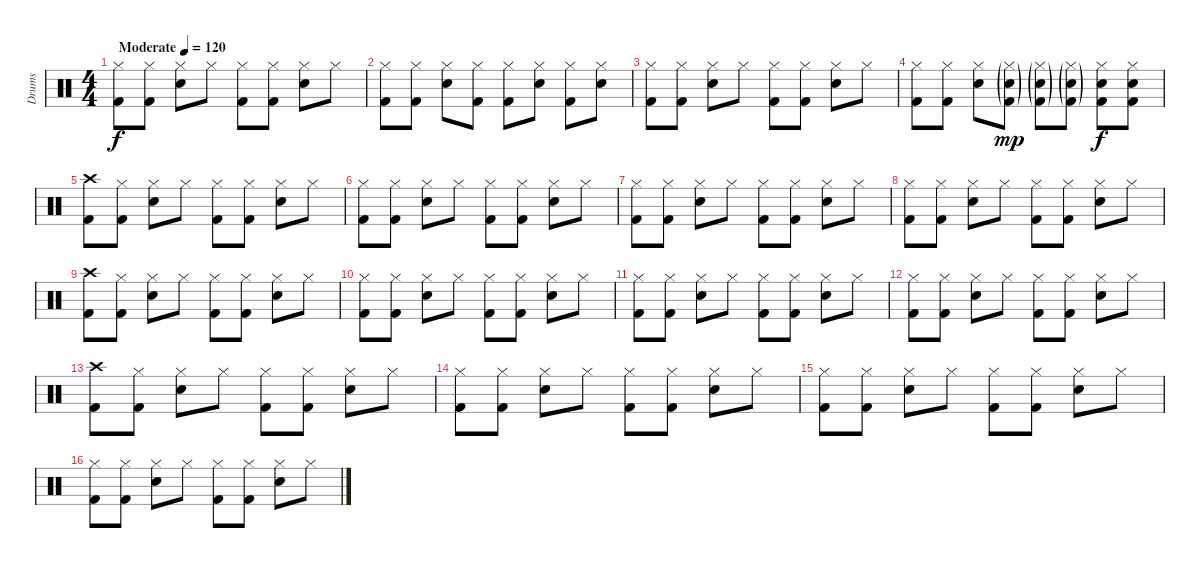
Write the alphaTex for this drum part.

\track ("Drums" "Drums") {instrument percussion}
\staff {score}
\articulation defaults
\ts (4 4)
\tempo (120 "Moderate")
\clef neutral
\ks c
("Hi-Hat (closed)" "Kick (hit) 2").8{dy f} ("Hi-Hat (closed)" "Kick (hit) 2").8 ("Hi-Hat (closed)" "Electric Snare (hit)").8 "Hi-Hat (closed)".8 ("Hi-Hat (closed)" "Kick (hit) 2").8 ("Hi-Hat (closed)" "Kick (hit) 2").8 ("Hi-Hat (closed)" "Electric Snare (hit)").8 "Hi-Hat (closed)".8 |
("Hi-Hat (closed)" "Kick (hit) 2").8 ("Hi-Hat (closed)" "Kick (hit) 2").8 ("Hi-Hat (closed)" "Electric Snare (hit)").8 ("Hi-Hat (closed)" "Kick (hit) 2").8 ("Hi-Hat (closed)" "Kick (hit) 2").8 ("Hi-Hat (closed)" "Electric Snare (hit)").8 ("Hi-Hat (closed)" "Kick (hit) 2").8 ("Hi-Hat (closed)" "Electric Snare (hit)").8 |
("Hi-Hat (closed)" "Kick (hit) 2").8 ("Hi-Hat (closed)" "Kick (hit) 2").8 ("Hi-Hat (closed)" "Electric Snare (hit)").8 "Hi-Hat (closed)".8 ("Hi-Hat (closed)" "Kick (hit) 2").8 ("Hi-Hat (closed)" "Kick (hit) 2").8 ("Hi-Hat (closed)" "Electric Snare (hit)").8 "Hi-Hat (closed)".8 |
("Hi-Hat (closed)" "Kick (hit) 2").8 ("Hi-Hat (closed)" "Kick (hit) 2").8 ("Hi-Hat (closed)" "Electric Snare (hit)").8 ("Hi-Hat (closed)"{g} "Electric Snare (hit)"{g} "Kick (hit) 2"{g}).8{dy mp} ("Hi-Hat (closed)"{g} "Electric Snare (hit)"{g} "Kick (hit) 2"{g}).8 ("Hi-Hat (closed)"{g} "Electric Snare (hit)"{g} "Kick (hit) 2"{g}).8 ("Hi-Hat (closed)" "Electric Snare (hit)" "Kick (hit) 2").8{dy f} ("Hi-Hat (closed)" "Electric Snare (hit)" "Kick (hit) 2").8 |
("Crash high (hit)" "Kick (hit) 2").8 ("Hi-Hat (closed)" "Kick (hit) 2").8 ("Hi-Hat (closed)" "Electric Snare (hit)").8 "Hi-Hat (closed)".8 ("Hi-Hat (closed)" "Kick (hit) 2").8 ("Hi-Hat (closed)" "Kick (hit) 2").8 ("Hi-Hat (closed)" "Electric Snare (hit)").8 "Hi-Hat (closed)".8 |
("Hi-Hat (closed)" "Kick (hit) 2").8 ("Hi-Hat (closed)" "Kick (hit) 2").8 ("Hi-Hat (closed)" "Electric Snare (hit)").8 "Hi-Hat (closed)".8 ("Hi-Hat (closed)" "Kick (hit) 2").8 ("Hi-Hat (closed)" "Kick (hit) 2").8 ("Hi-Hat (closed)" "Electric Snare (hit)").8 "Hi-Hat (closed)".8 |
("Hi-Hat (closed)" "Kick (hit) 2").8 ("Hi-Hat (closed)" "Kick (hit) 2").8 ("Hi-Hat (closed)" "Electric Snare (hit)").8 "Hi-Hat (closed)".8 ("Hi-Hat (closed)" "Kick (hit) 2").8 ("Hi-Hat (closed)" "Kick (hit) 2").8 ("Hi-Hat (closed)" "Electric Snare (hit)").8 "Hi-Hat (closed)".8 |
("Hi-Hat (closed)" "Kick (hit) 2").8 ("Hi-Hat (closed)" "Kick (hit) 2").8 ("Hi-Hat (closed)" "Electric Snare (hit)").8 "Hi-Hat (closed)".8 ("Hi-Hat (closed)" "Kick (hit) 2").8 ("Hi-Hat (closed)" "Kick (hit) 2").8 ("Hi-Hat (closed)" "Electric Snare (hit)").8 "Hi-Hat (closed)".8 |
("Crash high (hit)" "Kick (hit) 2").8 ("Hi-Hat (closed)" "Kick (hit) 2").8 ("Hi-Hat (closed)" "Electric Snare (hit)").8 "Hi-Hat (closed)".8 ("Hi-Hat (closed)" "Kick (hit) 2").8 ("Hi-Hat (closed)" "Kick (hit) 2").8 ("Hi-Hat (closed)" "Electric Snare (hit)").8 "Hi-Hat (closed)".8 |
("Hi-Hat (closed)" "Kick (hit) 2").8 ("Hi-Hat (closed)" "Kick (hit) 2").8 ("Hi-Hat (closed)" "Electric Snare (hit)").8 "Hi-Hat (closed)".8 ("Hi-Hat (closed)" "Kick (hit) 2").8 ("Hi-Hat (closed)" "Kick (hit) 2").8 ("Hi-Hat (closed)" "Electric Snare (hit)").8 "Hi-Hat (closed)".8 |
("Hi-Hat (closed)" "Kick (hit) 2").8 ("Hi-Hat (closed)" "Kick (hit) 2").8 ("Hi-Hat (closed)" "Electric Snare (hit)").8 "Hi-Hat (closed)".8 ("Hi-Hat (closed)" "Kick (hit) 2").8 ("Hi-Hat (closed)" "Kick (hit) 2").8 ("Hi-Hat (closed)" "Electric Snare (hit)").8 "Hi-Hat (closed)".8 |
("Hi-Hat (closed)" "Kick (hit) 2").8 ("Hi-Hat (closed)" "Kick (hit) 2").8 ("Hi-Hat (closed)" "Electric Snare (hit)").8 "Hi-Hat (closed)".8 ("Hi-Hat (closed)" "Kick (hit) 2").8 ("Hi-Hat (closed)" "Kick (hit) 2").8 ("Hi-Hat (closed)" "Electric Snare (hit)").8 "Hi-Hat (closed)".8 |
("Crash high (hit)" "Kick (hit) 2").8 ("Hi-Hat (closed)" "Kick (hit) 2").8 ("Hi-Hat (closed)" "Electric Snare (hit)").8 "Hi-Hat (closed)".8 ("Hi-Hat (closed)" "Kick (hit) 2").8 ("Hi-Hat (closed)" "Kick (hit) 2").8 ("Hi-Hat (closed)" "Electric Snare (hit)").8 "Hi-Hat (closed)".8 |
("Hi-Hat (closed)" "Kick (hit) 2").8 ("Hi-Hat (closed)" "Kick (hit) 2").8 ("Hi-Hat (closed)" "Electric Snare (hit)").8 "Hi-Hat (closed)".8 ("Hi-Hat (closed)" "Kick (hit) 2").8 ("Hi-Hat (closed)" "Kick (hit) 2").8 ("Hi-Hat (closed)" "Electric Snare (hit)").8 "Hi-Hat (closed)".8 |
("Hi-Hat (closed)" "Kick (hit) 2").8 ("Hi-Hat (closed)" "Kick (hit) 2").8 ("Hi-Hat (closed)" "Electric Snare (hit)").8 "Hi-Hat (closed)".8 ("Hi-Hat (closed)" "Kick (hit) 2").8 ("Hi-Hat (closed)" "Kick (hit) 2").8 ("Hi-Hat (closed)" "Electric Snare (hit)").8 "Hi-Hat (closed)".8 |
("Hi-Hat (closed)" "Kick (hit) 2").8 ("Hi-Hat (closed)" "Kick (hit) 2").8 ("Hi-Hat (closed)" "Electric Snare (hit)").8 "Hi-Hat (closed)".8 ("Hi-Hat (closed)" "Kick (hit) 2").8 ("Hi-Hat (closed)" "Kick (hit) 2").8 ("Hi-Hat (closed)" "Electric Snare (hit)").8 "Hi-Hat (closed)".8
